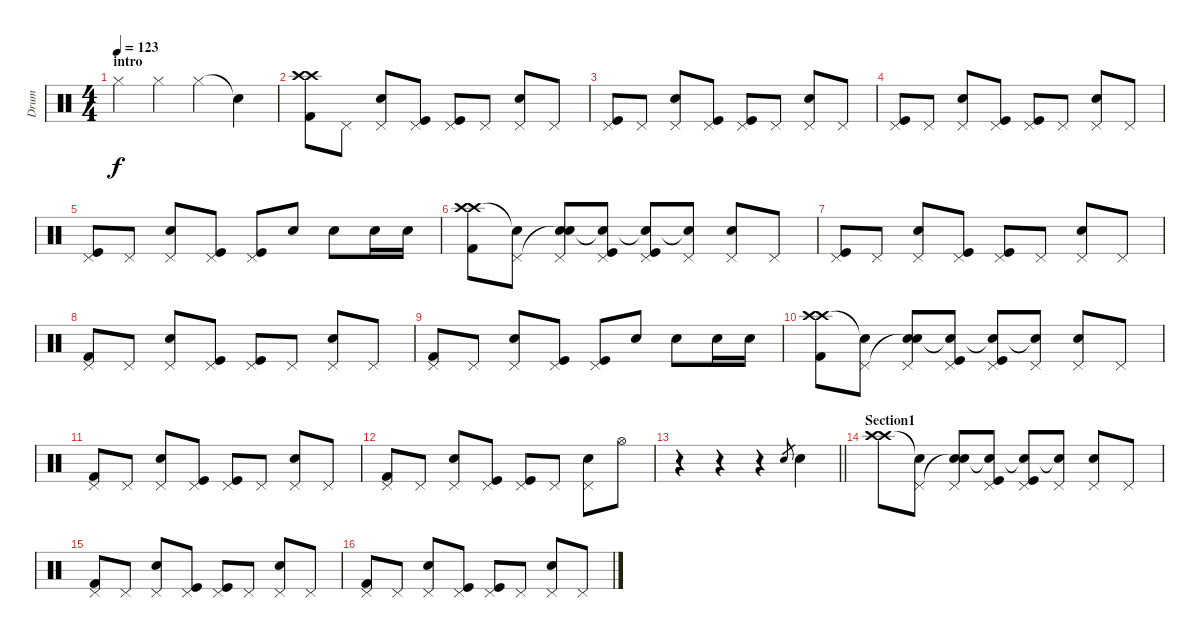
\track ("Drum" "Drum") {instrument percussion}
\staff {score}
\articulation defaults
\ts (4 4)
\section ("" "intro")
\tempo 123
\clef neutral
\ks c "Hi-Hat (closed)".4{dy f} "Hi-Hat (closed)".4 "Hi-Hat (closed)".4 "Snare (hit)"{t}.4
|
("Crash high (hit)" "Crash high (hit)" "Kick (hit) 2").8 "Pedal Hi-Hat (hit)".8 ("Snare (hit) 2" "Pedal Hi-Hat (hit)").8 ("Kick (hit)" "Pedal Hi-Hat (hit)").8 ("Kick (hit)" "Pedal Hi-Hat (hit)").8 "Pedal Hi-Hat (hit)".8 ("Snare (hit) 2" "Pedal Hi-Hat (hit)").8 "Pedal Hi-Hat (hit)".8 |
("Kick (hit)" "Pedal Hi-Hat (hit)").8 "Pedal Hi-Hat (hit)".8 ("Snare (hit) 2" "Pedal Hi-Hat (hit)").8 ("Kick (hit)" "Pedal Hi-Hat (hit)").8 ("Kick (hit)" "Pedal Hi-Hat (hit)").8 "Pedal Hi-Hat (hit)".8 ("Snare (hit) 2" "Pedal Hi-Hat (hit)").8 "Pedal Hi-Hat (hit)".8 |
("Kick (hit)" "Pedal Hi-Hat (hit)").8 "Pedal Hi-Hat (hit)".8 ("Snare (hit) 2" "Pedal Hi-Hat (hit)").8 ("Kick (hit)" "Pedal Hi-Hat (hit)").8 ("Kick (hit)" "Pedal Hi-Hat (hit)").8 "Pedal Hi-Hat (hit)".8 ("Snare (hit) 2" "Pedal Hi-Hat (hit)").8 "Pedal Hi-Hat (hit)".8 |
("Kick (hit)" "Pedal Hi-Hat (hit)").8 "Pedal Hi-Hat (hit)".8 ("Snare (hit) 2" "Pedal Hi-Hat (hit)").8 ("Kick (hit)" "Pedal Hi-Hat (hit)").8 ("Kick (hit)" "Pedal Hi-Hat (hit)").8 "Electric Snare (hit)".8 "Electric Snare (hit)".8 "Electric Snare (hit)".16 "Electric Snare (hit)".16 |
("Crash high (hit)" "Crash high (hit)" "Kick (hit) 2").8 ("Snare (hit)"{t} "Pedal Hi-Hat (hit)").8 ("Snare (hit) 2" "Snare (hit)"{t} "Pedal Hi-Hat (hit)").8 ("Snare (hit)"{t} "Kick (hit)" "Pedal Hi-Hat (hit)").8 ("Snare (hit)"{t} "Kick (hit)" "Pedal Hi-Hat (hit)").8 ("Snare (hit)"{t} "Pedal Hi-Hat (hit)").8 ("Snare (hit) 2" "Pedal Hi-Hat (hit)").8 "Pedal Hi-Hat (hit)".8 |
("Kick (hit)" "Pedal Hi-Hat (hit)").8 "Pedal Hi-Hat (hit)".8 ("Snare (hit) 2" "Pedal Hi-Hat (hit)").8 ("Kick (hit)" "Pedal Hi-Hat (hit)").8 ("Kick (hit)" "Pedal Hi-Hat (hit)").8 "Pedal Hi-Hat (hit)".8 ("Snare (hit) 2" "Pedal Hi-Hat (hit)").8 "Pedal Hi-Hat (hit)".8 |
("Kick (hit) 2" "Pedal Hi-Hat (hit)").8 "Pedal Hi-Hat (hit)".8 ("Snare (hit) 2" "Pedal Hi-Hat (hit)").8 ("Kick (hit)" "Pedal Hi-Hat (hit)").8 ("Kick (hit)" "Pedal Hi-Hat (hit)").8 "Pedal Hi-Hat (hit)".8 ("Snare (hit) 2" "Pedal Hi-Hat (hit)").8 "Pedal Hi-Hat (hit)".8 |
("Kick (hit) 2" "Pedal Hi-Hat (hit)").8 "Pedal Hi-Hat (hit)".8 ("Snare (hit) 2" "Pedal Hi-Hat (hit)").8 ("Kick (hit)" "Pedal Hi-Hat (hit)").8 ("Kick (hit)" "Pedal Hi-Hat (hit)").8 "Electric Snare (hit)".8 "Electric Snare (hit)".8 "Electric Snare (hit)".16 "Electric Snare (hit)".16 |
("Crash high (hit)" "Crash high (hit)" "Kick (hit) 2").8 ("Snare (hit)"{t} "Pedal Hi-Hat (hit)").8 ("Snare (hit) 2" "Snare (hit)"{t} "Pedal Hi-Hat (hit)").8 ("Snare (hit)"{t} "Kick (hit)" "Pedal Hi-Hat (hit)").8 ("Snare (hit)"{t} "Kick (hit)" "Pedal Hi-Hat (hit)").8 ("Snare (hit)"{t} "Pedal Hi-Hat (hit)").8 ("Snare (hit) 2" "Pedal Hi-Hat (hit)").8 "Pedal Hi-Hat (hit)".8 |
("Kick (hit) 2" "Pedal Hi-Hat (hit)").8 "Pedal Hi-Hat (hit)".8 ("Snare (hit) 2" "Pedal Hi-Hat (hit)").8 ("Kick (hit)" "Pedal Hi-Hat (hit)").8 ("Kick (hit)" "Pedal Hi-Hat (hit)").8 "Pedal Hi-Hat (hit)".8 ("Snare (hit) 2" "Pedal Hi-Hat (hit)").8 "Pedal Hi-Hat (hit)".8 |
("Kick (hit) 2" "Pedal Hi-Hat (hit)").8 "Pedal Hi-Hat (hit)".8 ("Snare (hit) 2" "Pedal Hi-Hat (hit)").8 ("Kick (hit)" "Pedal Hi-Hat (hit)").8 ("Kick (hit)" "Pedal Hi-Hat (hit)").8 "Pedal Hi-Hat (hit)".8 ("Snare (hit) 2" "Pedal Hi-Hat (hit)").8 "Hi-Hat (open)".8 |
\barLineRight lightlight
r.4 r.4 r.4 "Electric Snare (hit)".8{gr} "Electric Snare (hit)".4 |
\section ("" "Section1")
("Crash high (hit)" "Crash high (hit)").8 ("Snare (hit)"{t} "Pedal Hi-Hat (hit)").8 ("Snare (hit) 2" "Snare (hit)"{t} "Pedal Hi-Hat (hit)").8 ("Snare (hit)"{t} "Kick (hit)" "Pedal Hi-Hat (hit)").8 ("Snare (hit)"{t} "Kick (hit)" "Pedal Hi-Hat (hit)").8 ("Snare (hit)"{t} "Pedal Hi-Hat (hit)").8 ("Snare (hit) 2" "Pedal Hi-Hat (hit)").8 "Pedal Hi-Hat (hit)".8 |
("Kick (hit) 2" "Pedal Hi-Hat (hit)").8 "Pedal Hi-Hat (hit)".8 ("Snare (hit) 2" "Pedal Hi-Hat (hit)").8 ("Kick (hit)" "Pedal Hi-Hat (hit)").8 ("Kick (hit)" "Pedal Hi-Hat (hit)").8 "Pedal Hi-Hat (hit)".8 ("Snare (hit) 2" "Pedal Hi-Hat (hit)").8 "Pedal Hi-Hat (hit)".8 |
("Kick (hit) 2" "Pedal Hi-Hat (hit)").8 "Pedal Hi-Hat (hit)".8 ("Snare (hit) 2" "Pedal Hi-Hat (hit)").8 ("Kick (hit)" "Pedal Hi-Hat (hit)").8 ("Kick (hit)" "Pedal Hi-Hat (hit)").8 "Pedal Hi-Hat (hit)".8 ("Snare (hit) 2" "Pedal Hi-Hat (hit)").8 "Pedal Hi-Hat (hit)".8
